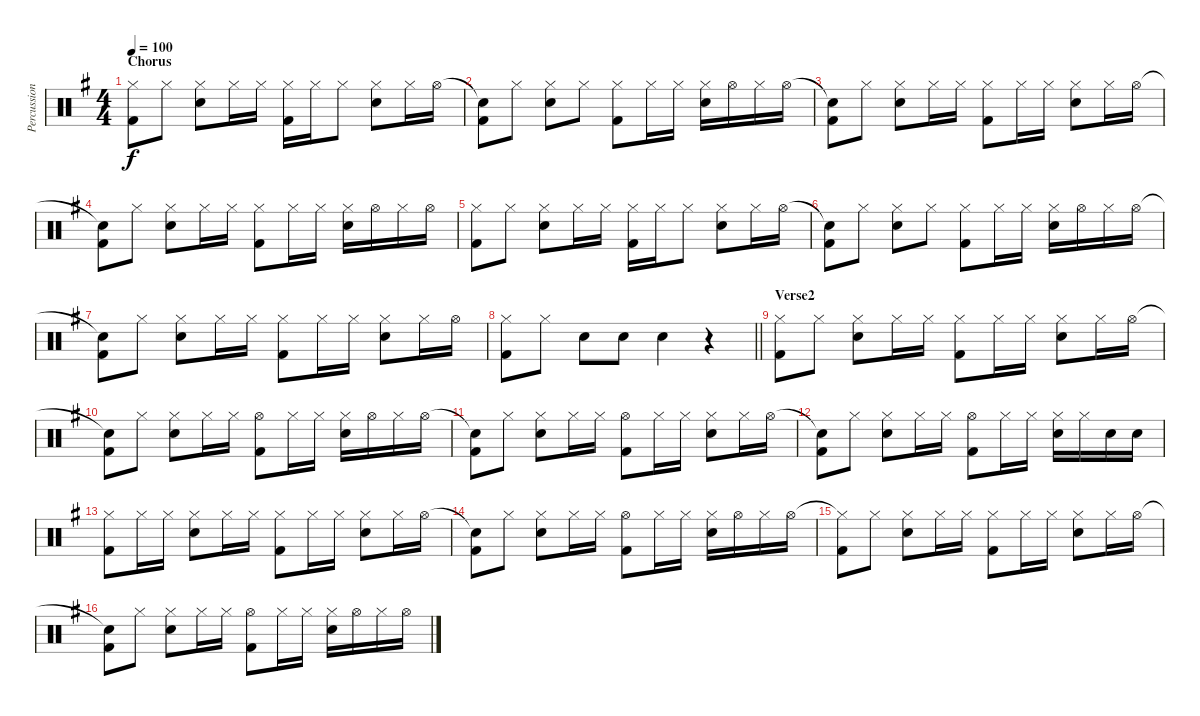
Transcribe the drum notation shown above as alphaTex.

\track ("Percussion" "Percussion") {instrument percussion}
\staff {score}
\articulation defaults
\ts (4 4)
\section ("" "Chorus")
\tempo 100
\clef neutral
\ks g
("Hi-Hat (closed)" "Kick (hit) 2").8{dy f} "Hi-Hat (closed)".8 ("Hi-Hat (closed)" "Electric Snare (hit)").8 "Hi-Hat (closed)".16 "Hi-Hat (closed)".16 ("Hi-Hat (closed)" "Kick (hit) 2").16 "Hi-Hat (closed)".16 "Hi-Hat (closed)".8 ("Hi-Hat (closed)" "Electric Snare (hit)").8 "Hi-Hat (closed)".16 "Hi-Hat (open)".16 |
("Snare (hit)"{t} "Kick (hit) 2").8 "Hi-Hat (closed)".8 ("Hi-Hat (closed)" "Electric Snare (hit)").8 "Hi-Hat (closed)".8 ("Hi-Hat (closed)" "Kick (hit) 2").8 "Hi-Hat (closed)".16 "Hi-Hat (closed)".16 ("Hi-Hat (closed)" "Electric Snare (hit)").16 "Hi-Hat (open)".16 "Hi-Hat (closed)".16 "Hi-Hat (open)".16 |
("Snare (hit)"{t} "Kick (hit) 2").8 "Hi-Hat (closed)".8 ("Hi-Hat (closed)" "Electric Snare (hit)").8 "Hi-Hat (closed)".16 "Hi-Hat (closed)".16 ("Hi-Hat (closed)" "Kick (hit) 2").8 "Hi-Hat (closed)".16 "Hi-Hat (closed)".16 ("Hi-Hat (closed)" "Electric Snare (hit)").8 "Hi-Hat (closed)".16 "Hi-Hat (open)".16 |
("Snare (hit)"{t} "Kick (hit) 2").8 "Hi-Hat (closed)".8 ("Hi-Hat (closed)" "Electric Snare (hit)").8 "Hi-Hat (closed)".16 "Hi-Hat (closed)".16 ("Hi-Hat (closed)" "Kick (hit) 2").8 "Hi-Hat (closed)".16 "Hi-Hat (closed)".16 ("Hi-Hat (closed)" "Electric Snare (hit)").16 "Hi-Hat (open)".16 "Hi-Hat (closed)".16 "Hi-Hat (open)".16 |
("Hi-Hat (closed)" "Kick (hit) 2").8 "Hi-Hat (closed)".8 ("Hi-Hat (closed)" "Electric Snare (hit)").8 "Hi-Hat (closed)".16 "Hi-Hat (closed)".16 ("Hi-Hat (closed)" "Kick (hit) 2").16 "Hi-Hat (closed)".16 "Hi-Hat (closed)".8 ("Hi-Hat (closed)" "Electric Snare (hit)").8 "Hi-Hat (closed)".16 "Hi-Hat (open)".16 |
("Snare (hit)"{t} "Kick (hit) 2").8 "Hi-Hat (closed)".8 ("Hi-Hat (closed)" "Electric Snare (hit)").8 "Hi-Hat (closed)".8 ("Hi-Hat (closed)" "Kick (hit) 2").8 "Hi-Hat (closed)".16 "Hi-Hat (closed)".16 ("Hi-Hat (closed)" "Electric Snare (hit)").16 "Hi-Hat (open)".16 "Hi-Hat (closed)".16 "Hi-Hat (open)".16 |
("Snare (hit)"{t} "Kick (hit) 2").8 "Hi-Hat (closed)".8 ("Hi-Hat (closed)" "Electric Snare (hit)").8 "Hi-Hat (closed)".16 "Hi-Hat (closed)".16 ("Hi-Hat (closed)" "Kick (hit) 2").8 "Hi-Hat (closed)".16 "Hi-Hat (closed)".16 ("Hi-Hat (closed)" "Electric Snare (hit)").8 "Hi-Hat (closed)".16 "Hi-Hat (open)".16 |
\barLineRight lightlight
("Hi-Hat (closed)" "Kick (hit) 2").8 "Hi-Hat (closed)".8 "Electric Snare (hit)".8 "Electric Snare (hit)".8 "Electric Snare (hit)".4 r.4 |
\section ("" "Verse2")
("Hi-Hat (closed)" "Kick (hit) 2").8 "Hi-Hat (closed)".8 ("Hi-Hat (closed)" "Electric Snare (hit)").8 "Hi-Hat (closed)".16 "Hi-Hat (closed)".16 ("Hi-Hat (closed)" "Kick (hit) 2").8 "Hi-Hat (closed)".16 "Hi-Hat (closed)".16 ("Hi-Hat (closed)" "Electric Snare (hit)").8 "Hi-Hat (closed)".16 "Hi-Hat (open)".16 |
("Snare (hit)"{t} "Kick (hit) 2").8 "Hi-Hat (closed)".8 ("Hi-Hat (closed)" "Electric Snare (hit)").8 "Hi-Hat (closed)".16 "Hi-Hat (closed)".16 ("Hi-Hat (open)" "Kick (hit) 2").8 "Hi-Hat (closed)".16 "Hi-Hat (closed)".16 ("Hi-Hat (closed)" "Electric Snare (hit)").16 "Hi-Hat (open)".16 "Hi-Hat (closed)".16 "Hi-Hat (open)".16 |
("Snare (hit)"{t} "Kick (hit) 2").8 "Hi-Hat (closed)".8 ("Hi-Hat (closed)" "Electric Snare (hit)").8 "Hi-Hat (closed)".16 "Hi-Hat (closed)".16 ("Hi-Hat (open)" "Kick (hit) 2").8 "Hi-Hat (closed)".16 "Hi-Hat (closed)".16 ("Hi-Hat (closed)" "Electric Snare (hit)").8 "Hi-Hat (closed)".16 "Hi-Hat (open)".16 |
("Snare (hit)"{t} "Kick (hit) 2").8 "Hi-Hat (closed)".8 ("Hi-Hat (closed)" "Electric Snare (hit)").8 "Hi-Hat (closed)".16 "Hi-Hat (closed)".16 ("Hi-Hat (open)" "Kick (hit) 2").8 "Hi-Hat (closed)".16 "Hi-Hat (closed)".16 ("Hi-Hat (closed)" "Electric Snare (hit)").16 "Hi-Hat (closed)".16 "Electric Snare (hit)".16 "Electric Snare (hit)".16 |
("Hi-Hat (closed)" "Kick (hit) 2").8 "Hi-Hat (closed)".16 "Hi-Hat (closed)".16 ("Hi-Hat (closed)" "Electric Snare (hit)").8 "Hi-Hat (closed)".16 "Hi-Hat (closed)".16 ("Hi-Hat (closed)" "Kick (hit) 2").8 "Hi-Hat (closed)".16 "Hi-Hat (closed)".16 ("Hi-Hat (closed)" "Electric Snare (hit)").8 "Hi-Hat (closed)".16 "Hi-Hat (open)".16 |
("Snare (hit)"{t} "Kick (hit) 2").8 "Hi-Hat (closed)".8 ("Hi-Hat (closed)" "Electric Snare (hit)").8 "Hi-Hat (closed)".16 "Hi-Hat (closed)".16 ("Hi-Hat (open)" "Kick (hit) 2").8 "Hi-Hat (closed)".16 "Hi-Hat (closed)".16 ("Hi-Hat (closed)" "Electric Snare (hit)").16 "Hi-Hat (open)".16 "Hi-Hat (closed)".16 "Hi-Hat (open)".16 |
("Hi-Hat (closed)"{t} "Kick (hit) 2").8 "Hi-Hat (closed)".8 ("Hi-Hat (closed)" "Electric Snare (hit)").8 "Hi-Hat (closed)".16 "Hi-Hat (closed)".16 ("Hi-Hat (closed)" "Kick (hit) 2").8 "Hi-Hat (closed)".16 "Hi-Hat (closed)".16 ("Hi-Hat (closed)" "Electric Snare (hit)").8 "Hi-Hat (closed)".16 "Hi-Hat (open)".16 |
("Snare (hit)"{t} "Kick (hit) 2").8 "Hi-Hat (closed)".8 ("Hi-Hat (closed)" "Electric Snare (hit)").8 "Hi-Hat (closed)".16 "Hi-Hat (closed)".16 ("Hi-Hat (open)" "Kick (hit) 2").8 "Hi-Hat (closed)".16 "Hi-Hat (closed)".16 ("Hi-Hat (closed)" "Electric Snare (hit)").16 "Hi-Hat (open)".16 "Hi-Hat (closed)".16 "Hi-Hat (open)".16
